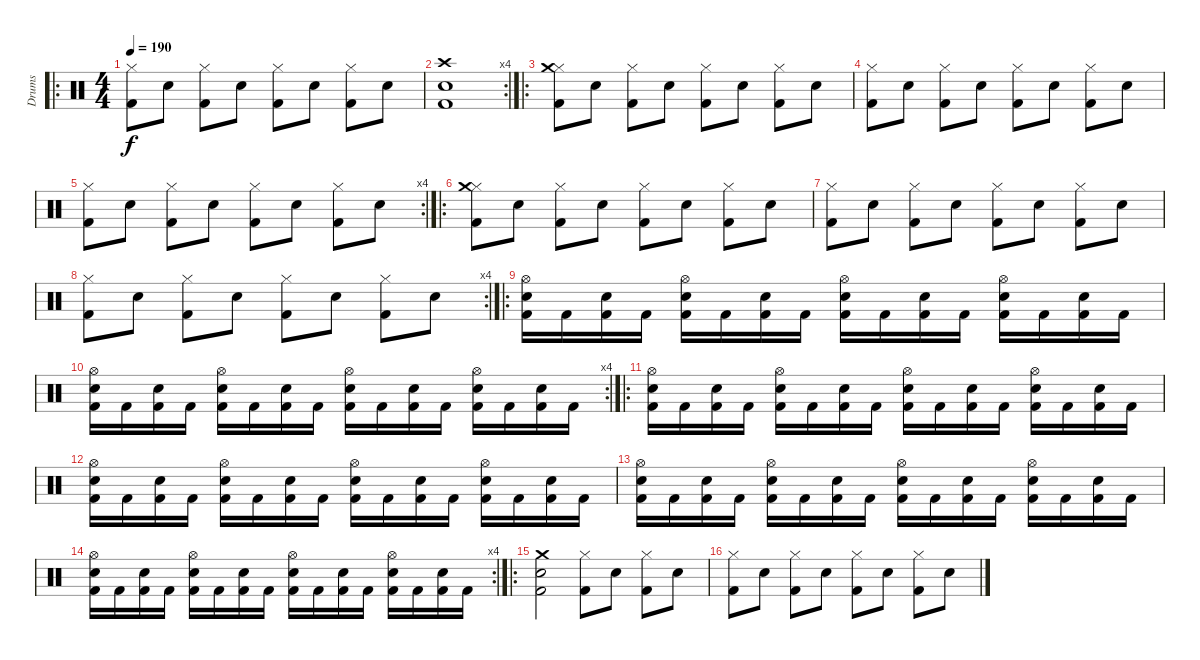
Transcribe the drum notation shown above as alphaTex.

\track ("Drums" "Drums") {instrument percussion}
\staff {score}
\articulation defaults
\ro
\ts (4 4)
\tempo 190
\clef neutral
\ks c
("Hi-Hat (closed)" "Kick (hit) 2").8{dy f} "Electric Snare (hit)".8 ("Hi-Hat (closed)" "Kick (hit) 2").8 "Electric Snare (hit)".8 ("Hi-Hat (closed)" "Kick (hit) 2").8 "Electric Snare (hit)".8 ("Hi-Hat (closed)" "Kick (hit) 2").8 "Electric Snare (hit)".8 |
\rc 4
("Electric Snare (hit)" "Crash high (hit)" "Kick (hit) 2").1 |
\ro
("Hi-Hat (closed)" "Crash medium (hit)" "Kick (hit) 2").8 "Electric Snare (hit)".8 ("Hi-Hat (closed)" "Kick (hit) 2").8 "Electric Snare (hit)".8 ("Hi-Hat (closed)" "Kick (hit) 2").8 "Electric Snare (hit)".8 ("Hi-Hat (closed)" "Kick (hit) 2").8 "Electric Snare (hit)".8 |
("Hi-Hat (closed)" "Kick (hit) 2").8 "Electric Snare (hit)".8 ("Hi-Hat (closed)" "Kick (hit) 2").8 "Electric Snare (hit)".8 ("Hi-Hat (closed)" "Kick (hit) 2").8 "Electric Snare (hit)".8 ("Hi-Hat (closed)" "Kick (hit) 2").8 "Electric Snare (hit)".8 |
\rc 4
("Hi-Hat (closed)" "Kick (hit) 2").8 "Electric Snare (hit)".8 ("Hi-Hat (closed)" "Kick (hit) 2").8 "Electric Snare (hit)".8 ("Hi-Hat (closed)" "Kick (hit) 2").8 "Electric Snare (hit)".8 ("Hi-Hat (closed)" "Kick (hit) 2").8 "Electric Snare (hit)".8 |
\ro
("Hi-Hat (closed)" "Crash medium (hit)" "Kick (hit) 2").8 "Electric Snare (hit)".8 ("Hi-Hat (closed)" "Kick (hit) 2").8 "Electric Snare (hit)".8 ("Hi-Hat (closed)" "Kick (hit) 2").8 "Electric Snare (hit)".8 ("Hi-Hat (closed)" "Kick (hit) 2").8 "Electric Snare (hit)".8 |
("Hi-Hat (closed)" "Kick (hit) 2").8 "Electric Snare (hit)".8 ("Hi-Hat (closed)" "Kick (hit) 2").8 "Electric Snare (hit)".8 ("Hi-Hat (closed)" "Kick (hit) 2").8 "Electric Snare (hit)".8 ("Hi-Hat (closed)" "Kick (hit) 2").8 "Electric Snare (hit)".8 |
\rc 4
("Hi-Hat (closed)" "Kick (hit) 2").8 "Electric Snare (hit)".8 ("Hi-Hat (closed)" "Kick (hit) 2").8 "Electric Snare (hit)".8 ("Hi-Hat (closed)" "Kick (hit) 2").8 "Electric Snare (hit)".8 ("Hi-Hat (closed)" "Kick (hit) 2").8 "Electric Snare (hit)".8 |
\ro
("Electric Snare (hit)" "Hi-Hat (open)" "Kick (hit) 2").16 "Kick (hit) 2".16 ("Electric Snare (hit)" "Kick (hit) 2").16 "Kick (hit) 2".16 ("Electric Snare (hit)" "Hi-Hat (open)" "Kick (hit) 2").16 "Kick (hit) 2".16 ("Electric Snare (hit)" "Kick (hit) 2").16 "Kick (hit) 2".16 ("Electric Snare (hit)" "Hi-Hat (open)" "Kick (hit) 2").16 "Kick (hit) 2".16 ("Electric Snare (hit)" "Kick (hit) 2").16 "Kick (hit) 2".16 ("Electric Snare (hit)" "Hi-Hat (open)" "Kick (hit) 2").16 "Kick (hit) 2".16 ("Electric Snare (hit)" "Kick (hit) 2").16 "Kick (hit) 2".16 |
\rc 4
("Electric Snare (hit)" "Hi-Hat (open)" "Kick (hit) 2").16 "Kick (hit) 2".16 ("Electric Snare (hit)" "Kick (hit) 2").16 "Kick (hit) 2".16 ("Electric Snare (hit)" "Hi-Hat (open)" "Kick (hit) 2").16 "Kick (hit) 2".16 ("Electric Snare (hit)" "Kick (hit) 2").16 "Kick (hit) 2".16 ("Electric Snare (hit)" "Hi-Hat (open)" "Kick (hit) 2").16 "Kick (hit) 2".16 ("Electric Snare (hit)" "Kick (hit) 2").16 "Kick (hit) 2".16 ("Electric Snare (hit)" "Hi-Hat (open)" "Kick (hit) 2").16 "Kick (hit) 2".16 ("Electric Snare (hit)" "Kick (hit) 2").16 "Kick (hit) 2".16 |
\ro
("Electric Snare (hit)" "Hi-Hat (open)" "Kick (hit) 2").16 "Kick (hit) 2".16 ("Electric Snare (hit)" "Kick (hit) 2").16 "Kick (hit) 2".16 ("Electric Snare (hit)" "Hi-Hat (open)" "Kick (hit) 2").16 "Kick (hit) 2".16 ("Electric Snare (hit)" "Kick (hit) 2").16 "Kick (hit) 2".16 ("Electric Snare (hit)" "Hi-Hat (open)" "Kick (hit) 2").16 "Kick (hit) 2".16 ("Electric Snare (hit)" "Kick (hit) 2").16 "Kick (hit) 2".16 ("Electric Snare (hit)" "Hi-Hat (open)" "Kick (hit) 2").16 "Kick (hit) 2".16 ("Electric Snare (hit)" "Kick (hit) 2").16 "Kick (hit) 2".16 |
("Electric Snare (hit)" "Hi-Hat (open)" "Kick (hit) 2").16 "Kick (hit) 2".16 ("Electric Snare (hit)" "Kick (hit) 2").16 "Kick (hit) 2".16 ("Electric Snare (hit)" "Hi-Hat (open)" "Kick (hit) 2").16 "Kick (hit) 2".16 ("Electric Snare (hit)" "Kick (hit) 2").16 "Kick (hit) 2".16 ("Electric Snare (hit)" "Hi-Hat (open)" "Kick (hit) 2").16 "Kick (hit) 2".16 ("Electric Snare (hit)" "Kick (hit) 2").16 "Kick (hit) 2".16 ("Electric Snare (hit)" "Hi-Hat (open)" "Kick (hit) 2").16 "Kick (hit) 2".16 ("Electric Snare (hit)" "Kick (hit) 2").16 "Kick (hit) 2".16 |
("Electric Snare (hit)" "Hi-Hat (open)" "Kick (hit) 2").16 "Kick (hit) 2".16 ("Electric Snare (hit)" "Kick (hit) 2").16 "Kick (hit) 2".16 ("Electric Snare (hit)" "Hi-Hat (open)" "Kick (hit) 2").16 "Kick (hit) 2".16 ("Electric Snare (hit)" "Kick (hit) 2").16 "Kick (hit) 2".16 ("Electric Snare (hit)" "Hi-Hat (open)" "Kick (hit) 2").16 "Kick (hit) 2".16 ("Electric Snare (hit)" "Kick (hit) 2").16 "Kick (hit) 2".16 ("Electric Snare (hit)" "Hi-Hat (open)" "Kick (hit) 2").16 "Kick (hit) 2".16 ("Electric Snare (hit)" "Kick (hit) 2").16 "Kick (hit) 2".16 |
\rc 4
("Electric Snare (hit)" "Hi-Hat (open)" "Kick (hit) 2").16 "Kick (hit) 2".16 ("Electric Snare (hit)" "Kick (hit) 2").16 "Kick (hit) 2".16 ("Electric Snare (hit)" "Hi-Hat (open)" "Kick (hit) 2").16 "Kick (hit) 2".16 ("Electric Snare (hit)" "Kick (hit) 2").16 "Kick (hit) 2".16 ("Electric Snare (hit)" "Hi-Hat (open)" "Kick (hit) 2").16 "Kick (hit) 2".16 ("Electric Snare (hit)" "Kick (hit) 2").16 "Kick (hit) 2".16 ("Electric Snare (hit)" "Hi-Hat (open)" "Kick (hit) 2").16 "Kick (hit) 2".16 ("Electric Snare (hit)" "Kick (hit) 2").16 "Kick (hit) 2".16 |
\ro
("Electric Snare (hit)" "Crash medium (hit)" "Kick (hit) 2").2 ("Hi-Hat (closed)" "Kick (hit) 2").8 "Electric Snare (hit)".8 ("Hi-Hat (closed)" "Kick (hit) 2").8 "Electric Snare (hit)".8 |
("Hi-Hat (closed)" "Kick (hit) 2").8 "Electric Snare (hit)".8 ("Hi-Hat (closed)" "Kick (hit) 2").8 "Electric Snare (hit)".8 ("Hi-Hat (closed)" "Kick (hit) 2").8 "Electric Snare (hit)".8 ("Hi-Hat (closed)" "Kick (hit) 2").8 "Electric Snare (hit)".8
